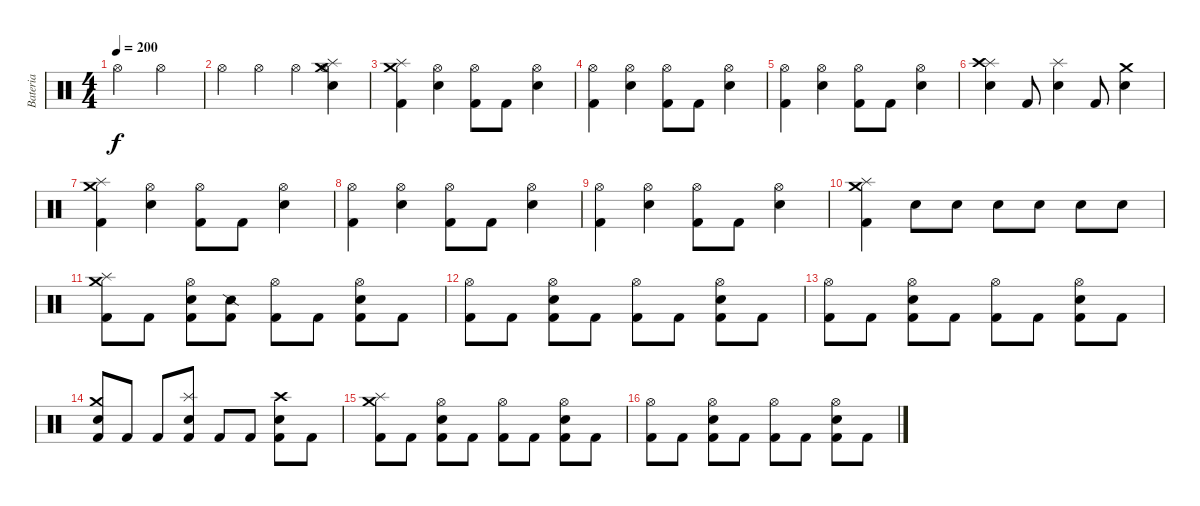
\track ("Bateria " "Bateria ") {instrument percussion}
\staff {score}
\articulation defaults
\ts (4 4)
\tempo 200
\clef neutral
\ks c "Hi-Hat (open)".2{dy f} "Hi-Hat (open)".2
|
"Hi-Hat (open)".4 "Hi-Hat (open)".4 "Hi-Hat (open)".4 ("Hi-Hat (open)" "Electric Snare (hit)" "Splash (hit)" "Crash medium (hit)").4 |
("Kick (hit) 2" "Crash medium (hit)" "Splash (hit)").4 ("Electric Snare (hit)" "Hi-Hat (open)").4 ("Kick (hit) 2" "Hi-Hat (open)").8 "Kick (hit) 2".8 ("Electric Snare (hit)" "Hi-Hat (open)").4 |
("Kick (hit) 2" "Hi-Hat (open)").4 ("Electric Snare (hit)" "Hi-Hat (open)").4 ("Kick (hit) 2" "Hi-Hat (open)").8 "Kick (hit) 2".8 ("Electric Snare (hit)" "Hi-Hat (open)").4 |
("Kick (hit) 2" "Hi-Hat (open)").4 ("Electric Snare (hit)" "Hi-Hat (open)").4 ("Kick (hit) 2" "Hi-Hat (open)").8 "Kick (hit) 2".8 ("Electric Snare (hit)" "Hi-Hat (open)").4 |
("Electric Snare (hit)" "Splash (hit)" "Crash high (hit)").4 "Kick (hit) 2".8 ("Electric Snare (hit)" "Splash (hit)").4 "Kick (hit) 2".8 ("Electric Snare (hit)" "Crash medium (hit)").4 |
("Kick (hit) 2" "Crash medium (hit)" "Splash (hit)").4 ("Electric Snare (hit)" "Hi-Hat (open)").4 ("Kick (hit) 2" "Hi-Hat (open)").8 "Kick (hit) 2".8 ("Electric Snare (hit)" "Hi-Hat (open)").4 |
("Kick (hit) 2" "Hi-Hat (open)").4 ("Electric Snare (hit)" "Hi-Hat (open)").4 ("Kick (hit) 2" "Hi-Hat (open)").8 "Kick (hit) 2".8 ("Electric Snare (hit)" "Hi-Hat (open)").4 |
("Kick (hit) 2" "Hi-Hat (open)").4 ("Electric Snare (hit)" "Hi-Hat (open)").4 ("Kick (hit) 2" "Hi-Hat (open)").8 "Kick (hit) 2".8 ("Electric Snare (hit)" "Hi-Hat (open)").4 |
("Kick (hit) 2" "Splash (hit)" "Crash medium (hit)").4 "Electric Snare (hit)".8 "Electric Snare (hit)".8 "Electric Snare (hit)".8 "Electric Snare (hit)".8 "Electric Snare (hit)".8 "Electric Snare (hit)".8 |
("Kick (hit) 2" "Splash (hit)" "Crash medium (hit)").8 "Kick (hit) 2".8 ("Kick (hit) 2" "Electric Snare (hit)" "Hi-Hat (open)").8 ("Kick (hit) 2" "Snare (side stick) 2").8 ("Kick (hit) 2" "Hi-Hat (open)").8 "Kick (hit) 2".8 ("Kick (hit) 2" "Electric Snare (hit)" "Hi-Hat (open)").8 "Kick (hit) 2".8 |
("Kick (hit) 2" "Hi-Hat (open)").8 "Kick (hit) 2".8 ("Kick (hit) 2" "Electric Snare (hit)" "Hi-Hat (open)").8 "Kick (hit) 2".8 ("Kick (hit) 2" "Hi-Hat (open)").8 "Kick (hit) 2".8 ("Kick (hit) 2" "Electric Snare (hit)" "Hi-Hat (open)").8 "Kick (hit) 2".8 |
("Kick (hit) 2" "Hi-Hat (open)").8 "Kick (hit) 2".8 ("Kick (hit) 2" "Electric Snare (hit)" "Hi-Hat (open)").8 "Kick (hit) 2".8 ("Kick (hit) 2" "Hi-Hat (open)").8 "Kick (hit) 2".8 ("Kick (hit) 2" "Electric Snare (hit)" "Hi-Hat (open)").8 "Kick (hit) 2".8 |
("Kick (hit) 2" "Electric Snare (hit)" "Crash medium (hit)").8 "Kick (hit) 2".8 "Kick (hit) 2".8 ("Kick (hit) 2" "Electric Snare (hit)" "Splash (hit)").8 "Kick (hit) 2".8 "Kick (hit) 2".8 ("Kick (hit) 2" "Electric Snare (hit)" "Crash high (hit)").8 "Kick (hit) 2".8 |
("Kick (hit) 2" "Splash (hit)" "Crash medium (hit)").8 "Kick (hit) 2".8 ("Kick (hit) 2" "Electric Snare (hit)" "Hi-Hat (open)").8 "Kick (hit) 2".8 ("Kick (hit) 2" "Hi-Hat (open)").8 "Kick (hit) 2".8 ("Kick (hit) 2" "Electric Snare (hit)" "Hi-Hat (open)").8 "Kick (hit) 2".8 |
("Kick (hit) 2" "Hi-Hat (open)").8 "Kick (hit) 2".8 ("Kick (hit) 2" "Electric Snare (hit)" "Hi-Hat (open)").8 "Kick (hit) 2".8 ("Kick (hit) 2" "Hi-Hat (open)").8 "Kick (hit) 2".8 ("Kick (hit) 2" "Electric Snare (hit)" "Hi-Hat (open)").8 "Kick (hit) 2".8
